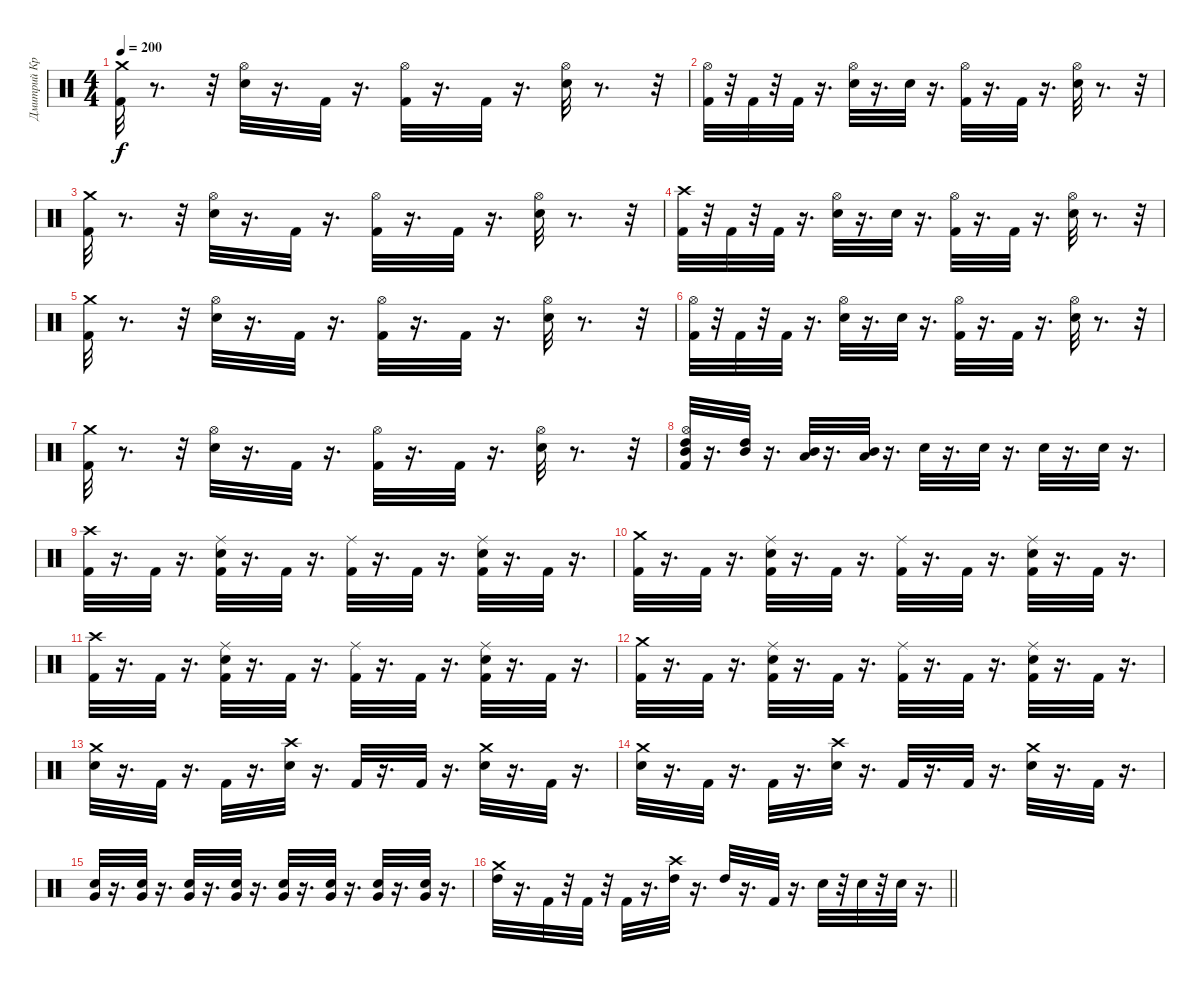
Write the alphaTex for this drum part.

\track ("Дмитрий Кривенков" "Дмитрий Кр") {instrument percussion}
\staff {score}
\articulation defaults
\ts (4 4)
\tempo 200
\clef neutral
\ks c
("Crash medium (hit)" "Kick (hit) 2").32{dy f} r.8{d} r.32 ("Hi-Hat (open)" "Electric Snare (hit)").32 r.16{d} "Kick (hit) 2".32 r.16{d} ("Hi-Hat (open)" "Kick (hit) 2").32 r.16{d} "Kick (hit) 2".32 r.16{d} ("Hi-Hat (open)" "Electric Snare (hit)").32 r.8{d} r.32 |
("Hi-Hat (open)" "Kick (hit) 2").32 r.32 "Kick (hit) 2".32 r.32 "Kick (hit) 2".32 r.16{d} ("Hi-Hat (open)" "Electric Snare (hit)").32 r.16{d} "Electric Snare (hit)".32 r.16{d} ("Hi-Hat (open)" "Kick (hit) 2").32 r.16{d} "Kick (hit) 2".32 r.16{d} ("Hi-Hat (open)" "Electric Snare (hit)").32 r.8{d} r.32 |
("Crash medium (hit)" "Kick (hit) 2").32 r.8{d} r.32 ("Hi-Hat (open)" "Electric Snare (hit)").32 r.16{d} "Kick (hit) 2".32 r.16{d} ("Hi-Hat (open)" "Kick (hit) 2").32 r.16{d} "Kick (hit) 2".32 r.16{d} ("Hi-Hat (open)" "Electric Snare (hit)").32 r.8{d} r.32 |
("Crash high (hit)" "Kick (hit) 2").32 r.32 "Kick (hit) 2".32 r.32 "Kick (hit) 2".32 r.16{d} ("Hi-Hat (open)" "Electric Snare (hit)").32 r.16{d} "Electric Snare (hit)".32 r.16{d} ("Hi-Hat (open)" "Kick (hit) 2").32 r.16{d} "Kick (hit) 2".32 r.16{d} ("Hi-Hat (open)" "Electric Snare (hit)").32 r.8{d} r.32 |
("Crash medium (hit)" "Kick (hit) 2").32 r.8{d} r.32 ("Hi-Hat (open)" "Electric Snare (hit)").32 r.16{d} "Kick (hit) 2".32 r.16{d} ("Hi-Hat (open)" "Kick (hit) 2").32 r.16{d} "Kick (hit) 2".32 r.16{d} ("Hi-Hat (open)" "Electric Snare (hit)").32 r.8{d} r.32 |
("Hi-Hat (open)" "Kick (hit) 2").32 r.32 "Kick (hit) 2".32 r.32 "Kick (hit) 2".32 r.16{d} ("Hi-Hat (open)" "Electric Snare (hit)").32 r.16{d} "Electric Snare (hit)".32 r.16{d} ("Hi-Hat (open)" "Kick (hit) 2").32 r.16{d} "Kick (hit) 2".32 r.16{d} ("Hi-Hat (open)" "Electric Snare (hit)").32 r.8{d} r.32 |
("Crash medium (hit)" "Kick (hit) 2").32 r.8{d} r.32 ("Hi-Hat (open)" "Electric Snare (hit)").32 r.16{d} "Kick (hit) 2".32 r.16{d} ("Hi-Hat (open)" "Kick (hit) 2").32 r.16{d} "Kick (hit) 2".32 r.16{d} ("Hi-Hat (open)" "Electric Snare (hit)").32 r.8{d} r.32 |
("Mid Tom (hit)" "High Tom (hit)" "Hi-Hat (open)" "Kick (hit) 2").32 r.16{d} ("Mid Tom (hit)" "High Tom (hit)").32 r.16{d} ("Low Tom (hit)" "Mid Tom (hit)").32 r.16{d} ("Low Tom (hit)" "Mid Tom (hit)").32 r.16{d} "Electric Snare (hit)".32 r.16{d} "Electric Snare (hit)".32 r.16{d} "Electric Snare (hit)".32 r.16{d} "Electric Snare (hit)".32 r.16{d} |
("Crash high (hit)" "Kick (hit) 2").32 r.16{d} "Kick (hit) 2".32 r.16{d} ("Ride (middle)" "Electric Snare (hit)" "Kick (hit) 2").32 r.16{d} "Kick (hit) 2".32 r.16{d} ("Ride (middle)" "Kick (hit) 2").32 r.16{d} "Kick (hit) 2".32 r.16{d} ("Ride (middle)" "Kick (hit) 2" "Electric Snare (hit)").32 r.16{d} "Kick (hit) 2".32 r.16{d} |
("Crash medium (hit)" "Kick (hit) 2").32 r.16{d} "Kick (hit) 2".32 r.16{d} ("Electric Snare (hit)" "Kick (hit) 2" "Ride (middle)").32 r.16{d} "Kick (hit) 2".32 r.16{d} ("Ride (middle)" "Kick (hit) 2").32 r.16{d} "Kick (hit) 2".32 r.16{d} ("Ride (middle)" "Kick (hit) 2" "Electric Snare (hit)").32 r.16{d} "Kick (hit) 2".32 r.16{d} |
("Crash high (hit)" "Kick (hit) 2").32 r.16{d} "Kick (hit) 2".32 r.16{d} ("Ride (middle)" "Electric Snare (hit)" "Kick (hit) 2").32 r.16{d} "Kick (hit) 2".32 r.16{d} ("Ride (middle)" "Kick (hit) 2").32 r.16{d} "Kick (hit) 2".32 r.16{d} ("Ride (middle)" "Kick (hit) 2" "Electric Snare (hit)").32 r.16{d} "Kick (hit) 2".32 r.16{d} |
("Crash medium (hit)" "Kick (hit) 2").32 r.16{d} "Kick (hit) 2".32 r.16{d} ("Electric Snare (hit)" "Kick (hit) 2" "Ride (middle)").32 r.16{d} "Kick (hit) 2".32 r.16{d} ("Ride (middle)" "Kick (hit) 2").32 r.16{d} "Kick (hit) 2".32 r.16{d} ("Ride (middle)" "Kick (hit) 2" "Electric Snare (hit)").32 r.16{d} "Kick (hit) 2".32 r.16{d} |
("Crash medium (hit)" "Electric Snare (hit)").32 r.16{d} "Kick (hit) 2".32 r.16{d} "Kick (hit) 2".32 r.16{d} ("Electric Snare (hit)" "Crash high (hit)").32 r.16{d} "Kick (hit) 2".32 r.16{d} "Kick (hit) 2".32 r.16{d} ("Electric Snare (hit)" "Crash medium (hit)").32 r.16{d} "Kick (hit) 2".32 r.16{d} |
("Electric Snare (hit)" "Crash medium (hit)").32 r.16{d} "Kick (hit) 2".32 r.16{d} "Kick (hit) 2".32 r.16{d} ("Electric Snare (hit)" "Crash high (hit)").32 r.16{d} "Kick (hit) 2".32 r.16{d} "Kick (hit) 2".32 r.16{d} ("Electric Snare (hit)" "Crash medium (hit)").32 r.16{d} "Kick (hit) 2".32 r.16{d} |
("Electric Snare (hit)" "Very Low Tom (hit)").32 r.16{d} ("Electric Snare (hit)" "Very Low Tom (hit)").32 r.16{d} ("Electric Snare (hit)" "Very Low Tom (hit)").32 r.16{d} ("Electric Snare (hit)" "Very Low Tom (hit)").32 r.16{d} ("Electric Snare (hit)" "Very Low Tom (hit)").32 r.16{d} ("Electric Snare (hit)" "Very Low Tom (hit)").32 r.16{d} ("Electric Snare (hit)" "Very Low Tom (hit)").32 r.16{d} ("Electric Snare (hit)" "Very Low Tom (hit)").32 r.16{d} |
\barLineRight lightlight
("High Tom (hit)" "Crash medium (hit)").32 r.16{d} "Kick (hit) 2".32 r.32 "Kick (hit) 2".32 r.32 "Kick (hit) 2".32 r.16{d} ("Crash high (hit)" "High Tom (hit)").32 r.16{d} "High Tom (hit)".32 r.16{d} "Kick (hit) 2".32 r.16{d} "Electric Snare (hit)".32 r.32 "Electric Snare (hit)".32 r.32 "Electric Snare (hit)".32 r.16{d}
